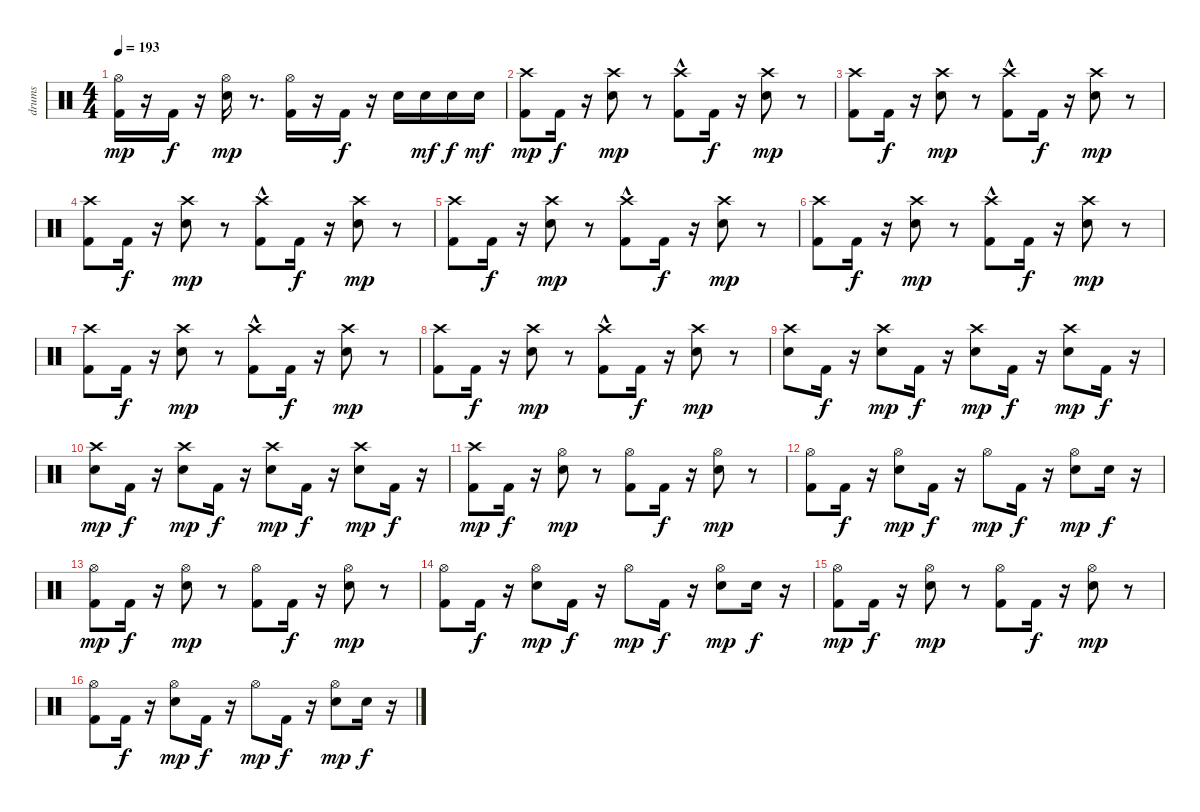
\track ("drums" "drums") {instrument percussion}
\staff {score}
\articulation defaults
\ts (4 4)
\tempo 193
\clef neutral
\ks c
("Kick (hit) 2" "Hi-Hat (open)").16{dy mp} r.16 "Kick (hit) 2".16{dy f} r.16 ("Snare (hit) 2" "Hi-Hat (open)").16{dy mp} r.8{d} ("Kick (hit) 2" "Hi-Hat (open)").16 r.16 "Kick (hit) 2".16{dy f} r.16 "Snare (hit) 2".16 "Snare (hit) 2".16{dy mf} "Snare (hit) 2".16{dy f} "Snare (hit) 2".16{dy mf} |
("Kick (hit) 2" "Crash high (hit)").8{dy mp} "Kick (hit) 2".16{dy f} r.16 ("Snare (hit) 2" "Crash high (hit)").8{dy mp} r.8 ("Kick (hit) 2" "Crash high (hit)"{hac}).8 "Kick (hit) 2".16{dy f} r.16 ("Snare (hit) 2" "Crash high (hit)").8{dy mp} r.8 |
("Kick (hit) 2" "Crash high (hit)").8 "Kick (hit) 2".16{dy f} r.16 ("Snare (hit) 2" "Crash high (hit)").8{dy mp} r.8 ("Kick (hit) 2" "Crash high (hit)"{hac}).8 "Kick (hit) 2".16{dy f} r.16 ("Snare (hit) 2" "Crash high (hit)").8{dy mp} r.8 |
("Kick (hit) 2" "Crash high (hit)").8 "Kick (hit) 2".16{dy f} r.16 ("Snare (hit) 2" "Crash high (hit)").8{dy mp} r.8 ("Kick (hit) 2" "Crash high (hit)"{hac}).8 "Kick (hit) 2".16{dy f} r.16 ("Snare (hit) 2" "Crash high (hit)").8{dy mp} r.8 |
("Kick (hit) 2" "Crash high (hit)").8 "Kick (hit) 2".16{dy f} r.16 ("Snare (hit) 2" "Crash high (hit)").8{dy mp} r.8 ("Kick (hit) 2" "Crash high (hit)"{hac}).8 "Kick (hit) 2".16{dy f} r.16 ("Snare (hit) 2" "Crash high (hit)").8{dy mp} r.8 |
("Kick (hit) 2" "Crash high (hit)").8 "Kick (hit) 2".16{dy f} r.16 ("Snare (hit) 2" "Crash high (hit)").8{dy mp} r.8 ("Kick (hit) 2" "Crash high (hit)"{hac}).8 "Kick (hit) 2".16{dy f} r.16 ("Snare (hit) 2" "Crash high (hit)").8{dy mp} r.8 |
("Kick (hit) 2" "Crash high (hit)").8 "Kick (hit) 2".16{dy f} r.16 ("Snare (hit) 2" "Crash high (hit)").8{dy mp} r.8 ("Kick (hit) 2" "Crash high (hit)"{hac}).8 "Kick (hit) 2".16{dy f} r.16 ("Snare (hit) 2" "Crash high (hit)").8{dy mp} r.8 |
("Kick (hit) 2" "Crash high (hit)").8 "Kick (hit) 2".16{dy f} r.16 ("Snare (hit) 2" "Crash high (hit)").8{dy mp} r.8 ("Kick (hit) 2" "Crash high (hit)"{hac}).8 "Kick (hit) 2".16{dy f} r.16 ("Snare (hit) 2" "Crash high (hit)").8{dy mp} r.8 |
("Snare (hit) 2" "Crash high (hit)").8 "Kick (hit) 2".16{dy f} r.16 ("Snare (hit) 2" "Crash high (hit)").8{dy mp} "Kick (hit) 2".16{dy f} r.16 ("Snare (hit) 2" "Crash high (hit)").8{dy mp} "Kick (hit) 2".16{dy f} r.16 ("Snare (hit) 2" "Crash high (hit)").8{dy mp} "Kick (hit) 2".16{dy f} r.16 |
("Snare (hit) 2" "Crash high (hit)").8{dy mp} "Kick (hit) 2".16{dy f} r.16 ("Snare (hit) 2" "Crash high (hit)").8{dy mp} "Kick (hit) 2".16{dy f} r.16 ("Snare (hit) 2" "Crash high (hit)").8{dy mp} "Kick (hit) 2".16{dy f} r.16 ("Snare (hit) 2" "Crash high (hit)").8{dy mp} "Kick (hit) 2".16{dy f} r.16 |
("Kick (hit) 2" "Crash high (hit)").8{dy mp} "Kick (hit) 2".16{dy f} r.16 ("Snare (hit) 2" "Hi-Hat (open)").8{dy mp} r.8 ("Kick (hit) 2" "Hi-Hat (open)").8 "Kick (hit) 2".16{dy f} r.16 ("Snare (hit) 2" "Hi-Hat (open)").8{dy mp} r.8 |
("Kick (hit) 2" "Hi-Hat (open)").8 "Kick (hit) 2".16{dy f} r.16 ("Snare (hit) 2" "Hi-Hat (open)").8{dy mp} "Kick (hit) 2".16{dy f} r.16 "Hi-Hat (open)".8{dy mp} "Kick (hit) 2".16{dy f} r.16 ("Snare (hit) 2" "Hi-Hat (open)").8{dy mp} "Snare (hit) 2".16{dy f} r.16 |
("Kick (hit) 2" "Hi-Hat (open)").8{dy mp} "Kick (hit) 2".16{dy f} r.16 ("Snare (hit) 2" "Hi-Hat (open)").8{dy mp} r.8 ("Kick (hit) 2" "Hi-Hat (open)").8 "Kick (hit) 2".16{dy f} r.16 ("Snare (hit) 2" "Hi-Hat (open)").8{dy mp} r.8 |
("Kick (hit) 2" "Hi-Hat (open)").8 "Kick (hit) 2".16{dy f} r.16 ("Snare (hit) 2" "Hi-Hat (open)").8{dy mp} "Kick (hit) 2".16{dy f} r.16 "Hi-Hat (open)".8{dy mp} "Kick (hit) 2".16{dy f} r.16 ("Snare (hit) 2" "Hi-Hat (open)").8{dy mp} "Snare (hit) 2".16{dy f} r.16 |
("Kick (hit) 2" "Hi-Hat (open)").8{dy mp} "Kick (hit) 2".16{dy f} r.16 ("Snare (hit) 2" "Hi-Hat (open)").8{dy mp} r.8 ("Kick (hit) 2" "Hi-Hat (open)").8 "Kick (hit) 2".16{dy f} r.16 ("Snare (hit) 2" "Hi-Hat (open)").8{dy mp} r.8 |
("Kick (hit) 2" "Hi-Hat (open)").8 "Kick (hit) 2".16{dy f} r.16 ("Snare (hit) 2" "Hi-Hat (open)").8{dy mp} "Kick (hit) 2".16{dy f} r.16 "Hi-Hat (open)".8{dy mp} "Kick (hit) 2".16{dy f} r.16 ("Snare (hit) 2" "Hi-Hat (open)").8{dy mp} "Snare (hit) 2".16{dy f} r.16
